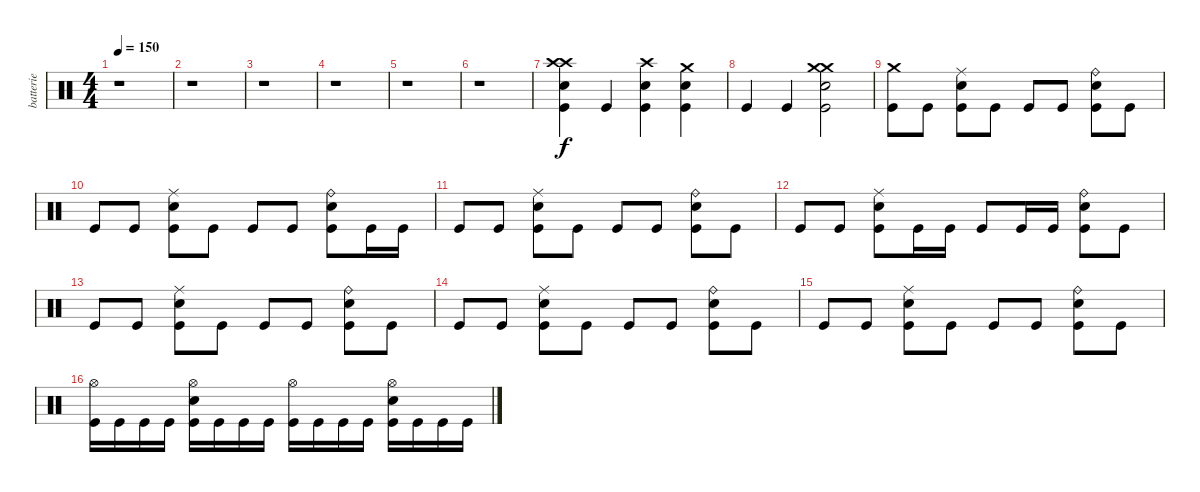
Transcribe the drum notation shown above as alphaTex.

\track ("batterie" "batterie") {instrument percussion}
\staff {score}
\articulation defaults
\ts (4 4)
\tempo 150
\clef neutral
\ks c
r.1{dy f} |
r.1 |
r.1 |
r.1 |
r.1 |
r.1 |
("Crash high (hit)" "Crash high (hit)" "Snare (hit) 2" "Kick (hit)").4 "Kick (hit)".4 ("Crash high (hit)" "Snare (hit) 2" "Kick (hit)").4 ("Crash medium (hit)" "Snare (hit) 2" "Kick (hit)").4 |
"Kick (hit)".4 "Kick (hit)".4 ("Crash medium (hit)" "Crash medium (hit)" "Snare (hit) 2" "Kick (hit)").2 |
("Crash medium (hit)" "Kick (hit)").8 "Kick (hit)".8 ("Ride (middle)" "Snare (hit) 2" "Kick (hit)").8 "Kick (hit)".8 "Kick (hit)".8 "Kick (hit)".8 ("Ride (bell)" "Snare (hit) 2" "Kick (hit)").8 "Kick (hit)".8 |
"Kick (hit)".8 "Kick (hit)".8 ("Ride (middle)" "Snare (hit) 2" "Kick (hit)").8 "Kick (hit)".8 "Kick (hit)".8 "Kick (hit)".8 ("Ride (bell)" "Snare (hit) 2" "Kick (hit)").8 "Kick (hit)".16 "Kick (hit)".16 |
"Kick (hit)".8 "Kick (hit)".8 ("Ride (middle)" "Snare (hit) 2" "Kick (hit)").8 "Kick (hit)".8 "Kick (hit)".8 "Kick (hit)".8 ("Ride (bell)" "Snare (hit) 2" "Kick (hit)").8 "Kick (hit)".8 |
"Kick (hit)".8 "Kick (hit)".8 ("Ride (middle)" "Snare (hit) 2" "Kick (hit)").8 "Kick (hit)".16 "Kick (hit)".16 "Kick (hit)".8 "Kick (hit)".16 "Kick (hit)".16 ("Ride (bell)" "Snare (hit) 2" "Kick (hit)").8 "Kick (hit)".8 |
"Kick (hit)".8 "Kick (hit)".8 ("Ride (middle)" "Snare (hit) 2" "Kick (hit)").8 "Kick (hit)".8 "Kick (hit)".8 "Kick (hit)".8 ("Ride (bell)" "Snare (hit) 2" "Kick (hit)").8 "Kick (hit)".8 |
"Kick (hit)".8 "Kick (hit)".8 ("Ride (middle)" "Snare (hit) 2" "Kick (hit)").8 "Kick (hit)".8 "Kick (hit)".8 "Kick (hit)".8 ("Ride (bell)" "Snare (hit) 2" "Kick (hit)").8 "Kick (hit)".8 |
"Kick (hit)".8 "Kick (hit)".8 ("Ride (middle)" "Snare (hit) 2" "Kick (hit)").8 "Kick (hit)".8 "Kick (hit)".8 "Kick (hit)".8 ("Ride (bell)" "Snare (hit) 2" "Kick (hit)").8 "Kick (hit)".8 |
("Hi-Hat (open)" "Kick (hit)").16 "Kick (hit)".16 "Kick (hit)".16 "Kick (hit)".16 ("Hi-Hat (open)" "Snare (hit) 2" "Kick (hit)").16 "Kick (hit)".16 "Kick (hit)".16 "Kick (hit)".16 ("Hi-Hat (open)" "Kick (hit)").16 "Kick (hit)".16 "Kick (hit)".16 "Kick (hit)".16 ("Hi-Hat (open)" "Snare (hit) 2" "Kick (hit)").16 "Kick (hit)".16 "Kick (hit)".16 "Kick (hit)".16
